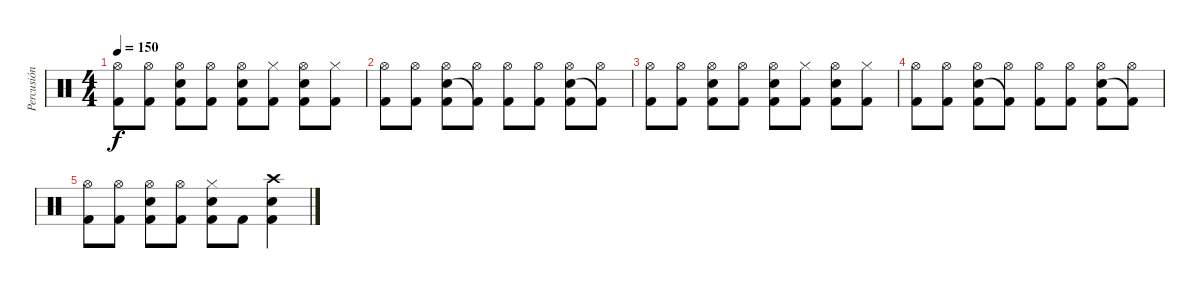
\track ("Percusión" "Percusión") {instrument percussion}
\staff {score}
\articulation defaults
\ts (4 4)
\tempo 150
\clef neutral
\ks c
("Hi-Hat (open)" "Kick (hit) 2").8{dy f} ("Hi-Hat (open)" "Kick (hit) 2").8 ("Hi-Hat (open)" "Snare (hit) 2" "Kick (hit) 2").8 ("Hi-Hat (open)" "Kick (hit) 2").8 ("Hi-Hat (open)" "Snare (hit) 2" "Kick (hit) 2").8 ("Hi-Hat (closed)" "Kick (hit) 2").8 ("Hi-Hat (open)" "Snare (hit) 2" "Kick (hit) 2").8 ("Hi-Hat (closed)" "Kick (hit) 2").8 |
("Hi-Hat (open)" "Kick (hit) 2").8 ("Hi-Hat (open)" "Kick (hit) 2").8 ("Hi-Hat (open)" "Snare (hit) 2" "Kick (hit) 2").8 ("Hi-Hat (open)" "Kick (hit) 2"{t}).8 ("Hi-Hat (open)" "Kick (hit) 2").8 ("Hi-Hat (open)" "Kick (hit) 2").8 ("Hi-Hat (open)" "Snare (hit) 2" "Kick (hit) 2").8 ("Hi-Hat (open)" "Kick (hit) 2"{t}).8 |
("Hi-Hat (open)" "Kick (hit) 2").8 ("Hi-Hat (open)" "Kick (hit) 2").8 ("Hi-Hat (open)" "Snare (hit) 2" "Kick (hit) 2").8 ("Hi-Hat (open)" "Kick (hit) 2").8 ("Hi-Hat (open)" "Snare (hit) 2" "Kick (hit) 2").8 ("Hi-Hat (closed)" "Kick (hit) 2").8 ("Hi-Hat (open)" "Snare (hit) 2" "Kick (hit) 2").8 ("Hi-Hat (closed)" "Kick (hit) 2").8 |
("Hi-Hat (open)" "Kick (hit) 2").8 ("Hi-Hat (open)" "Kick (hit) 2").8 ("Hi-Hat (open)" "Snare (hit) 2" "Kick (hit) 2").8 ("Hi-Hat (open)" "Kick (hit) 2"{t}).8 ("Hi-Hat (open)" "Kick (hit) 2").8 ("Hi-Hat (open)" "Kick (hit) 2").8 ("Hi-Hat (open)" "Snare (hit) 2" "Kick (hit) 2").8 ("Hi-Hat (open)" "Kick (hit) 2"{t}).8 |
("Hi-Hat (open)" "Kick (hit) 2").8 ("Hi-Hat (open)" "Kick (hit) 2").8 ("Hi-Hat (open)" "Snare (hit) 2" "Kick (hit) 2").8 ("Hi-Hat (open)" "Kick (hit) 2").8 ("Hi-Hat (closed)" "Snare (hit) 2" "Kick (hit) 2").8 "Kick (hit) 2".8 ("Crash high (hit)" "Snare (hit) 2" "Kick (hit) 2").4
